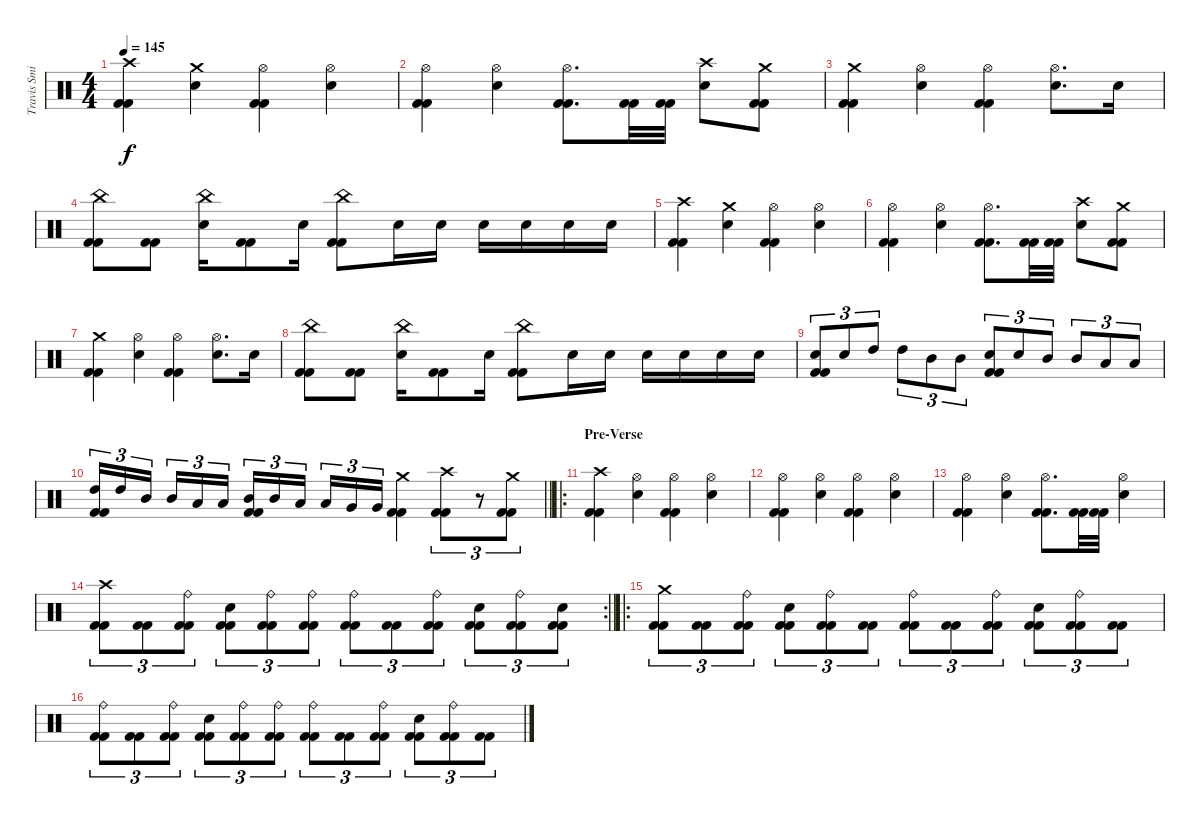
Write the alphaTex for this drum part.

\track ("Travis Smith" "Travis Smi") {instrument percussion}
\staff {score}
\articulation defaults
\ts (4 4)
\tempo 145
\clef neutral
\ks c
("Crash high (hit)" "Kick (hit) 2" "Kick (hit) 2").4{dy f} ("Crash medium (hit)" "Electric Snare (hit)").4 ("Hi-Hat (open)" "Kick (hit) 2" "Kick (hit) 2").4 ("Hi-Hat (open)" "Electric Snare (hit)").4 |
("Hi-Hat (open)" "Kick (hit) 2" "Kick (hit) 2").4 ("Hi-Hat (open)" "Electric Snare (hit)").4 ("Hi-Hat (open)" "Kick (hit) 2" "Kick (hit) 2").8{d} ("Kick (hit) 2" "Kick (hit) 2").32 ("Kick (hit) 2" "Kick (hit) 2").32 ("Crash high (hit)" "Electric Snare (hit)").8 ("Crash medium (hit)" "Kick (hit) 2" "Kick (hit) 2").8 |
("Crash medium (hit)" "Kick (hit) 2" "Kick (hit) 2").4 ("Hi-Hat (open)" "Electric Snare (hit)").4 ("Hi-Hat (open)" "Kick (hit) 2" "Kick (hit) 2").4 ("Hi-Hat (open)" "Electric Snare (hit)").8{d} "Electric Snare (hit)".16 |
("China (hit)" "Kick (hit) 2" "Kick (hit) 2").8 ("Kick (hit) 2" "Kick (hit) 2").8 ("China (hit)" "Electric Snare (hit)").16 ("Kick (hit) 2" "Kick (hit) 2").8 "Electric Snare (hit)".16 ("China (hit)" "Kick (hit) 2" "Kick (hit) 2").8 "Electric Snare (hit)".16 "Electric Snare (hit)".16 "Electric Snare (hit)".16 "Electric Snare (hit)".16 "Electric Snare (hit)".16 "Electric Snare (hit)".16 |
("Crash high (hit)" "Kick (hit) 2" "Kick (hit) 2").4 ("Crash medium (hit)" "Electric Snare (hit)").4 ("Hi-Hat (open)" "Kick (hit) 2" "Kick (hit) 2").4 ("Hi-Hat (open)" "Electric Snare (hit)").4 |
("Hi-Hat (open)" "Kick (hit) 2" "Kick (hit) 2").4 ("Hi-Hat (open)" "Electric Snare (hit)").4 ("Hi-Hat (open)" "Kick (hit) 2" "Kick (hit) 2").8{d} ("Kick (hit) 2" "Kick (hit) 2").32 ("Kick (hit) 2" "Kick (hit) 2").32 ("Crash high (hit)" "Electric Snare (hit)").8 ("Crash medium (hit)" "Kick (hit) 2" "Kick (hit) 2").8 |
("Crash medium (hit)" "Kick (hit) 2" "Kick (hit) 2").4 ("Hi-Hat (open)" "Electric Snare (hit)").4 ("Hi-Hat (open)" "Kick (hit) 2" "Kick (hit) 2").4 ("Hi-Hat (open)" "Electric Snare (hit)").8{d} "Electric Snare (hit)".16 |
("China (hit)" "Kick (hit) 2" "Kick (hit) 2").8 ("Kick (hit) 2" "Kick (hit) 2").8 ("China (hit)" "Electric Snare (hit)").16 ("Kick (hit) 2" "Kick (hit) 2").8 "Electric Snare (hit)".16 ("China (hit)" "Kick (hit) 2" "Kick (hit) 2").8 "Electric Snare (hit)".16 "Electric Snare (hit)".16 "Electric Snare (hit)".16 "Electric Snare (hit)".16 "Electric Snare (hit)".16 "Electric Snare (hit)".16 |
("Electric Snare (hit)" "Kick (hit) 2" "Kick (hit) 2").8{tu (3 2)} "Electric Snare (hit)".8{tu (3 2)} "High Tom (hit)".8{tu (3 2)} "High Tom (hit)".8{tu (3 2)} "Mid Tom (hit)".8{tu (3 2)} "Mid Tom (hit)".8{tu (3 2)} ("Electric Snare (hit)" "Kick (hit) 2" "Kick (hit) 2").8{tu (3 2)} "Electric Snare (hit)".8{tu (3 2)} "Mid Tom (hit)".8{tu (3 2)} "Mid Tom (hit)".8{tu (3 2)} "Low Tom (hit)".8{tu (3 2)} "Low Tom (hit)".8{tu (3 2)} |
\barLineRight lightlight
("High Tom (hit)" "Kick (hit) 2" "Kick (hit) 2").16{tu (3 2)} "High Tom (hit)".16{tu (3 2)} "Mid Tom (hit)".16{tu (3 2) beam splitsecondary} "Mid Tom (hit)".16{tu (3 2)} "Low Tom (hit)".16{tu (3 2)} "Low Tom (hit)".16{tu (3 2)} ("Mid Tom (hit)" "Kick (hit) 2" "Kick (hit) 2").16{tu (3 2)} "Mid Tom (hit)".16{tu (3 2)} "Low Tom (hit)".16{tu (3 2) beam splitsecondary} "Low Tom (hit)".16{tu (3 2)} "Very Low Tom (hit)".16{tu (3 2)} "Very Low Tom (hit)".16{tu (3 2)} ("Crash medium (hit)" "Kick (hit) 2" "Kick (hit) 2").4 ("Crash high (hit)" "Kick (hit) 2" "Kick (hit) 2").8{tu (3 2)} r.8{tu (3 2)} ("Crash medium (hit)" "Kick (hit) 2" "Kick (hit) 2").8{tu (3 2)} |
\ro
\section ("" "Pre-Verse")
("Crash high (hit)" "Kick (hit) 2" "Kick (hit) 2").4 ("Hi-Hat (open)" "Electric Snare (hit)").4 ("Hi-Hat (open)" "Kick (hit) 2" "Kick (hit) 2").4 ("Hi-Hat (open)" "Electric Snare (hit)").4 |
("Hi-Hat (open)" "Kick (hit) 2" "Kick (hit) 2").4 ("Hi-Hat (open)" "Electric Snare (hit)").4 ("Hi-Hat (open)" "Kick (hit) 2" "Kick (hit) 2").4 ("Hi-Hat (open)" "Electric Snare (hit)").4 |
("Hi-Hat (open)" "Kick (hit) 2" "Kick (hit) 2").4 ("Hi-Hat (open)" "Electric Snare (hit)").4 ("Hi-Hat (open)" "Kick (hit) 2" "Kick (hit) 2").8{d} ("Kick (hit) 2" "Kick (hit) 2").32 ("Kick (hit) 2" "Kick (hit) 2").32 ("Hi-Hat (open)" "Electric Snare (hit)").4 |
\rc 2
\barLineRight lightlight
("Crash high (hit)" "Kick (hit) 2" "Kick (hit) 2").8{tu (3 2)} ("Kick (hit) 2" "Kick (hit) 2").8{tu (3 2)} ("Ride (bell)" "Kick (hit) 2" "Kick (hit) 2").8{tu (3 2)} ("Electric Snare (hit)" "Kick (hit) 2" "Kick (hit) 2").8{tu (3 2)} ("Ride (bell)" "Kick (hit) 2" "Kick (hit) 2").8{tu (3 2)} ("Ride (bell)" "Kick (hit) 2" "Kick (hit) 2").8{tu (3 2)} ("Ride (bell)" "Kick (hit) 2" "Kick (hit) 2").8{tu (3 2)} ("Kick (hit) 2" "Kick (hit) 2").8{tu (3 2)} ("Ride (bell)" "Kick (hit) 2" "Kick (hit) 2").8{tu (3 2)} ("Electric Snare (hit)" "Kick (hit) 2" "Kick (hit) 2").8{tu (3 2)} ("Ride (bell)" "Kick (hit) 2" "Kick (hit) 2").8{tu (3 2)} ("Electric Snare (hit)" "Kick (hit) 2" "Kick (hit) 2").8{tu (3 2)} |
\ro
("Crash medium (hit)" "Kick (hit) 2" "Kick (hit) 2").8{tu (3 2)} ("Kick (hit) 2" "Kick (hit) 2").8{tu (3 2)} ("Ride (bell)" "Kick (hit) 2" "Kick (hit) 2").8{tu (3 2)} ("Electric Snare (hit)" "Kick (hit) 2" "Kick (hit) 2").8{tu (3 2)} ("Ride (bell)" "Kick (hit) 2" "Kick (hit) 2").8{tu (3 2)} ("Kick (hit) 2" "Kick (hit) 2").8{tu (3 2)} ("Ride (bell)" "Kick (hit) 2" "Kick (hit) 2").8{tu (3 2)} ("Kick (hit) 2" "Kick (hit) 2").8{tu (3 2)} ("Ride (bell)" "Kick (hit) 2" "Kick (hit) 2").8{tu (3 2)} ("Electric Snare (hit)" "Kick (hit) 2" "Kick (hit) 2").8{tu (3 2)} ("Ride (bell)" "Kick (hit) 2" "Kick (hit) 2").8{tu (3 2)} ("Kick (hit) 2" "Kick (hit) 2").8{tu (3 2)} |
("Ride (bell)" "Kick (hit) 2" "Kick (hit) 2").8{tu (3 2)} ("Kick (hit) 2" "Kick (hit) 2").8{tu (3 2)} ("Ride (bell)" "Kick (hit) 2" "Kick (hit) 2").8{tu (3 2)} ("Electric Snare (hit)" "Kick (hit) 2" "Kick (hit) 2").8{tu (3 2)} ("Ride (bell)" "Kick (hit) 2" "Kick (hit) 2").8{tu (3 2)} ("Ride (bell)" "Kick (hit) 2" "Kick (hit) 2").8{tu (3 2)} ("Ride (bell)" "Kick (hit) 2" "Kick (hit) 2").8{tu (3 2)} ("Kick (hit) 2" "Kick (hit) 2").8{tu (3 2)} ("Ride (bell)" "Kick (hit) 2" "Kick (hit) 2").8{tu (3 2)} ("Electric Snare (hit)" "Kick (hit) 2" "Kick (hit) 2").8{tu (3 2)} ("Ride (bell)" "Kick (hit) 2" "Kick (hit) 2").8{tu (3 2)} ("Kick (hit) 2" "Kick (hit) 2").8{tu (3 2)}
